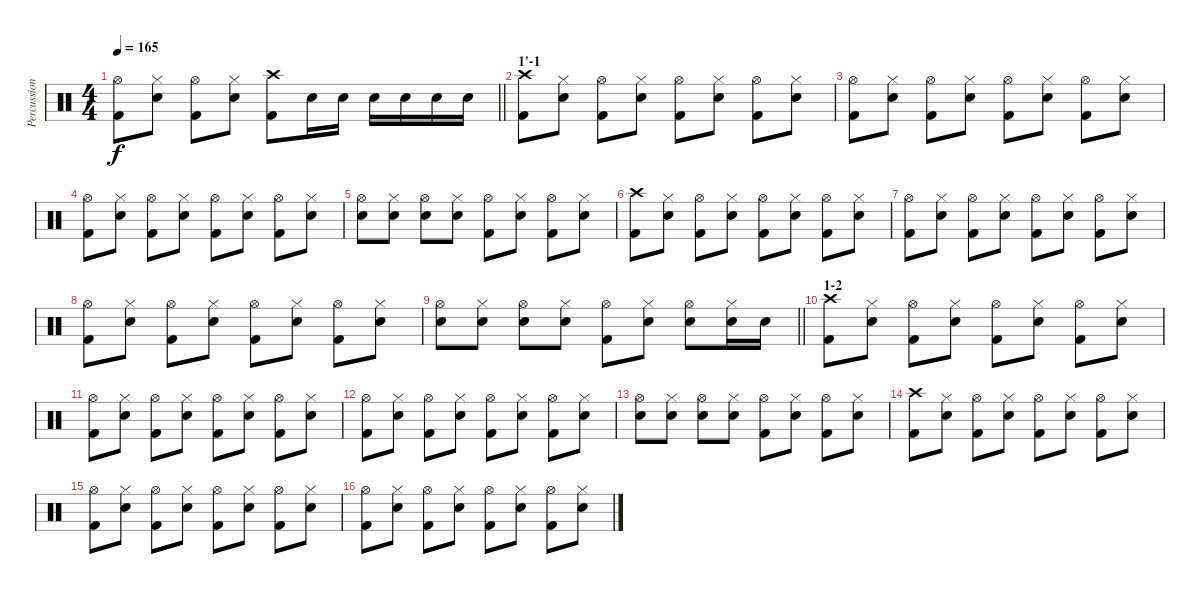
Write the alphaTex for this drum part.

\track ("Percussion" "Percussion") {instrument percussion}
\staff {score}
\articulation defaults
\ts (4 4)
\tempo 165
\clef neutral
\barLineRight lightlight
\ks c
("Hi-Hat (open)" "Kick (hit) 2").8{dy f} ("Hi-Hat (closed)" "Snare (hit) 2").8 ("Hi-Hat (open)" "Kick (hit) 2").8 ("Hi-Hat (closed)" "Snare (hit) 2").8 ("Crash high (hit)" "Kick (hit) 2").8 "Snare (hit) 2".16 "Snare (hit) 2".16 "Snare (hit) 2".16 "Snare (hit) 2".16 "Snare (hit) 2".16 "Snare (hit) 2".16 |
\section ("" "1'-1")
("Crash high (hit)" "Kick (hit) 2").8 ("Hi-Hat (closed)" "Snare (hit) 2").8 ("Hi-Hat (open)" "Kick (hit) 2").8 ("Hi-Hat (closed)" "Snare (hit) 2").8 ("Hi-Hat (open)" "Kick (hit) 2").8 ("Hi-Hat (closed)" "Snare (hit) 2").8 ("Hi-Hat (open)" "Kick (hit) 2").8 ("Hi-Hat (closed)" "Snare (hit) 2").8 |
("Hi-Hat (open)" "Kick (hit) 2").8 ("Hi-Hat (closed)" "Snare (hit) 2").8 ("Hi-Hat (open)" "Kick (hit) 2").8 ("Hi-Hat (closed)" "Snare (hit) 2").8 ("Hi-Hat (open)" "Kick (hit) 2").8 ("Hi-Hat (closed)" "Snare (hit) 2").8 ("Hi-Hat (open)" "Kick (hit) 2").8 ("Hi-Hat (closed)" "Snare (hit) 2").8 |
("Hi-Hat (open)" "Kick (hit) 2").8 ("Hi-Hat (closed)" "Snare (hit) 2").8 ("Hi-Hat (open)" "Kick (hit) 2").8 ("Hi-Hat (closed)" "Snare (hit) 2").8 ("Hi-Hat (open)" "Kick (hit) 2").8 ("Hi-Hat (closed)" "Snare (hit) 2").8 ("Hi-Hat (open)" "Kick (hit) 2").8 ("Hi-Hat (closed)" "Snare (hit) 2").8 |
("Hi-Hat (open)" "Snare (hit) 2").8 ("Hi-Hat (closed)" "Snare (hit) 2").8 ("Hi-Hat (open)" "Snare (hit) 2").8 ("Hi-Hat (closed)" "Snare (hit) 2").8 ("Hi-Hat (open)" "Kick (hit) 2").8 ("Hi-Hat (closed)" "Snare (hit) 2").8 ("Hi-Hat (open)" "Kick (hit) 2").8 ("Hi-Hat (closed)" "Snare (hit) 2").8 |
("Crash high (hit)" "Kick (hit) 2").8 ("Hi-Hat (closed)" "Snare (hit) 2").8 ("Hi-Hat (open)" "Kick (hit) 2").8 ("Hi-Hat (closed)" "Snare (hit) 2").8 ("Hi-Hat (open)" "Kick (hit) 2").8 ("Hi-Hat (closed)" "Snare (hit) 2").8 ("Hi-Hat (open)" "Kick (hit) 2").8 ("Hi-Hat (closed)" "Snare (hit) 2").8 |
("Hi-Hat (open)" "Kick (hit) 2").8 ("Hi-Hat (closed)" "Snare (hit) 2").8 ("Hi-Hat (open)" "Kick (hit) 2").8 ("Hi-Hat (closed)" "Snare (hit) 2").8 ("Hi-Hat (open)" "Kick (hit) 2").8 ("Hi-Hat (closed)" "Snare (hit) 2").8 ("Hi-Hat (open)" "Kick (hit) 2").8 ("Hi-Hat (closed)" "Snare (hit) 2").8 |
("Hi-Hat (open)" "Kick (hit) 2").8 ("Hi-Hat (closed)" "Snare (hit) 2").8 ("Hi-Hat (open)" "Kick (hit) 2").8 ("Hi-Hat (closed)" "Snare (hit) 2").8 ("Hi-Hat (open)" "Kick (hit) 2").8 ("Hi-Hat (closed)" "Snare (hit) 2").8 ("Hi-Hat (open)" "Kick (hit) 2").8 ("Hi-Hat (closed)" "Snare (hit) 2").8 |
\barLineRight lightlight
("Hi-Hat (open)" "Snare (hit) 2").8 ("Hi-Hat (closed)" "Snare (hit) 2").8 ("Hi-Hat (open)" "Snare (hit) 2").8 ("Hi-Hat (closed)" "Snare (hit) 2").8 ("Hi-Hat (open)" "Kick (hit) 2").8 ("Hi-Hat (closed)" "Snare (hit) 2").8 ("Hi-Hat (open)" "Snare (hit) 2").8 ("Hi-Hat (closed)" "Snare (hit) 2").16 "Snare (hit) 2".16 |
\section ("" "1-2")
("Crash high (hit)" "Kick (hit) 2").8 ("Hi-Hat (closed)" "Snare (hit) 2").8 ("Hi-Hat (open)" "Kick (hit) 2").8 ("Hi-Hat (closed)" "Snare (hit) 2").8 ("Hi-Hat (open)" "Kick (hit) 2").8 ("Hi-Hat (closed)" "Snare (hit) 2").8 ("Hi-Hat (open)" "Kick (hit) 2").8 ("Hi-Hat (closed)" "Snare (hit) 2").8 |
("Hi-Hat (open)" "Kick (hit) 2").8 ("Hi-Hat (closed)" "Snare (hit) 2").8 ("Hi-Hat (open)" "Kick (hit) 2").8 ("Hi-Hat (closed)" "Snare (hit) 2").8 ("Hi-Hat (open)" "Kick (hit) 2").8 ("Hi-Hat (closed)" "Snare (hit) 2").8 ("Hi-Hat (open)" "Kick (hit) 2").8 ("Hi-Hat (closed)" "Snare (hit) 2").8 |
("Hi-Hat (open)" "Kick (hit) 2").8 ("Hi-Hat (closed)" "Snare (hit) 2").8 ("Hi-Hat (open)" "Kick (hit) 2").8 ("Hi-Hat (closed)" "Snare (hit) 2").8 ("Hi-Hat (open)" "Kick (hit) 2").8 ("Hi-Hat (closed)" "Snare (hit) 2").8 ("Hi-Hat (open)" "Kick (hit) 2").8 ("Hi-Hat (closed)" "Snare (hit) 2").8 |
("Hi-Hat (open)" "Snare (hit) 2").8 ("Hi-Hat (closed)" "Snare (hit) 2").8 ("Hi-Hat (open)" "Snare (hit) 2").8 ("Hi-Hat (closed)" "Snare (hit) 2").8 ("Hi-Hat (open)" "Kick (hit) 2").8 ("Hi-Hat (closed)" "Snare (hit) 2").8 ("Hi-Hat (open)" "Kick (hit) 2").8 ("Hi-Hat (closed)" "Snare (hit) 2").8 |
("Crash high (hit)" "Kick (hit) 2").8 ("Hi-Hat (closed)" "Snare (hit) 2").8 ("Hi-Hat (open)" "Kick (hit) 2").8 ("Hi-Hat (closed)" "Snare (hit) 2").8 ("Hi-Hat (open)" "Kick (hit) 2").8 ("Hi-Hat (closed)" "Snare (hit) 2").8 ("Hi-Hat (open)" "Kick (hit) 2").8 ("Hi-Hat (closed)" "Snare (hit) 2").8 |
("Hi-Hat (open)" "Kick (hit) 2").8 ("Hi-Hat (closed)" "Snare (hit) 2").8 ("Hi-Hat (open)" "Kick (hit) 2").8 ("Hi-Hat (closed)" "Snare (hit) 2").8 ("Hi-Hat (open)" "Kick (hit) 2").8 ("Hi-Hat (closed)" "Snare (hit) 2").8 ("Hi-Hat (open)" "Kick (hit) 2").8 ("Hi-Hat (closed)" "Snare (hit) 2").8 |
("Hi-Hat (open)" "Kick (hit) 2").8 ("Hi-Hat (closed)" "Snare (hit) 2").8 ("Hi-Hat (open)" "Kick (hit) 2").8 ("Hi-Hat (closed)" "Snare (hit) 2").8 ("Hi-Hat (open)" "Kick (hit) 2").8 ("Hi-Hat (closed)" "Snare (hit) 2").8 ("Hi-Hat (open)" "Kick (hit) 2").8 ("Hi-Hat (closed)" "Snare (hit) 2").8
